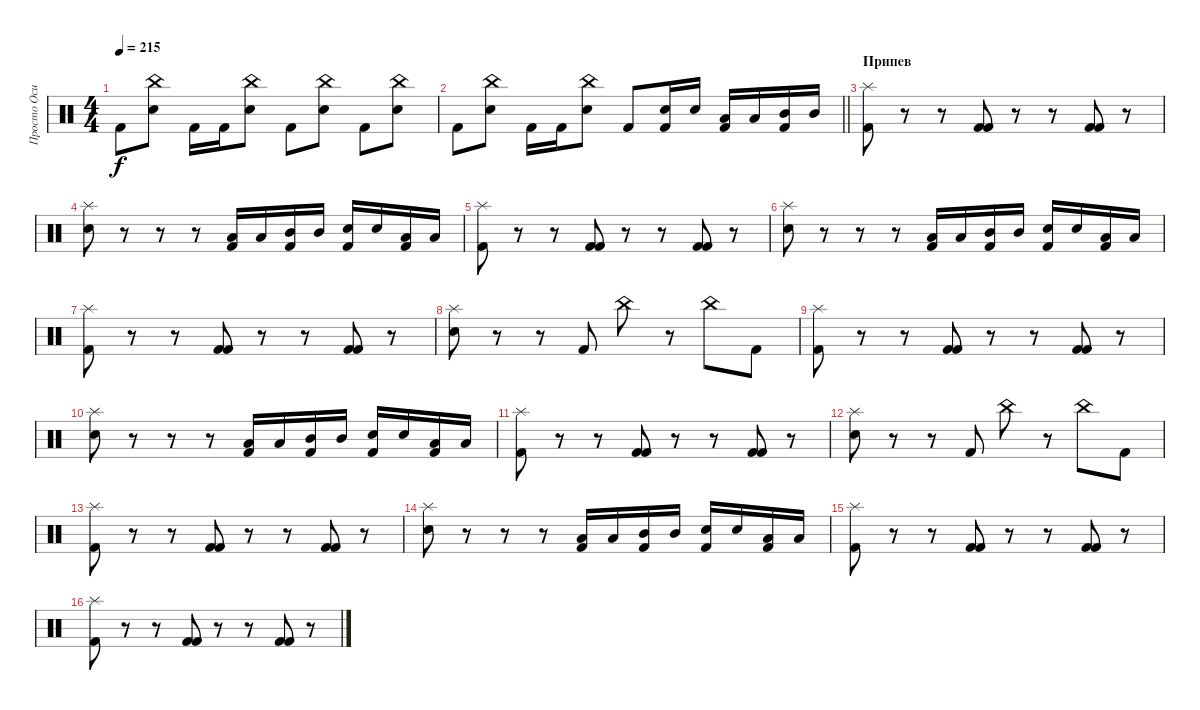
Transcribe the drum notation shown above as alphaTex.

\track ("Просто Осип" "Просто Оси") {instrument percussion}
\staff {score}
\articulation defaults
\ts (4 4)
\tempo 215
\clef neutral
\ks c "Kick (hit) 2".8{dy f}
("Electric Snare (hit)" "China (hit)").8 "Kick (hit) 2".16 "Kick (hit) 2".16 ("Electric Snare (hit)" "China (hit)").8 "Kick (hit) 2".8 ("Electric Snare (hit)" "China (hit)").8 "Kick (hit) 2".8 ("Electric Snare (hit)" "China (hit)").8 |
\barLineRight lightlight "Kick (hit) 2".8
("Electric Snare (hit)" "China (hit)").8 "Kick (hit) 2".16 "Kick (hit) 2".16 ("Electric Snare (hit)" "China (hit)").8 "Kick (hit) 2".8 ("Kick (hit) 2" "Electric Snare (hit)").16 "Electric Snare (hit)".16 ("Kick (hit) 2" "Low Tom (hit)").16 "Low Tom (hit)".16 ("Kick (hit) 2" "Mid Tom (hit)").16 "Mid Tom (hit)".16 |
\section ("" "Припев")
("Kick (hit) 2" "Splash (hit)").8 r.8 r.8 ("Kick (hit) 2" "Kick (hit) 2").8 r.8 r.8 ("Kick (hit) 2" "Kick (hit) 2").8 r.8 |
("Splash (hit)" "Electric Snare (hit)").8 r.8 r.8 r.8 ("Kick (hit) 2" "Low Tom (hit)").16 "Low Tom (hit)".16 ("Kick (hit) 2" "Mid Tom (hit)").16 "Mid Tom (hit)".16 ("Kick (hit) 2" "Electric Snare (hit)").16 "Electric Snare (hit)".16 ("Kick (hit) 2" "Low Tom (hit)").16 "Low Tom (hit)".16 |
("Kick (hit) 2" "Splash (hit)").8 r.8 r.8 ("Kick (hit) 2" "Kick (hit) 2").8 r.8 r.8 ("Kick (hit) 2" "Kick (hit) 2").8 r.8 |
("Splash (hit)" "Electric Snare (hit)").8 r.8 r.8 r.8 ("Kick (hit) 2" "Low Tom (hit)").16 "Low Tom (hit)".16 ("Kick (hit) 2" "Mid Tom (hit)").16 "Mid Tom (hit)".16 ("Kick (hit) 2" "Electric Snare (hit)").16 "Electric Snare (hit)".16 ("Kick (hit) 2" "Low Tom (hit)").16 "Low Tom (hit)".16 |
("Kick (hit) 2" "Splash (hit)").8 r.8 r.8 ("Kick (hit) 2" "Kick (hit) 2").8 r.8 r.8 ("Kick (hit) 2" "Kick (hit) 2").8 r.8 |
("Splash (hit)" "Electric Snare (hit)").8 r.8 r.8 "Kick (hit) 2".8 "China (hit)".8 r.8 "China (hit)".8 "Kick (hit) 2".8 |
("Kick (hit) 2" "Splash (hit)").8 r.8 r.8 ("Kick (hit) 2" "Kick (hit) 2").8 r.8 r.8 ("Kick (hit) 2" "Kick (hit) 2").8 r.8 |
("Splash (hit)" "Electric Snare (hit)").8 r.8 r.8 r.8 ("Kick (hit) 2" "Low Tom (hit)").16 "Low Tom (hit)".16 ("Kick (hit) 2" "Mid Tom (hit)").16 "Mid Tom (hit)".16 ("Kick (hit) 2" "Electric Snare (hit)").16 "Electric Snare (hit)".16 ("Kick (hit) 2" "Low Tom (hit)").16 "Low Tom (hit)".16 |
("Kick (hit) 2" "Splash (hit)").8 r.8 r.8 ("Kick (hit) 2" "Kick (hit) 2").8 r.8 r.8 ("Kick (hit) 2" "Kick (hit) 2").8 r.8 |
("Splash (hit)" "Electric Snare (hit)").8 r.8 r.8 "Kick (hit) 2".8 "China (hit)".8 r.8 "China (hit)".8 "Kick (hit) 2".8 |
("Kick (hit) 2" "Splash (hit)").8 r.8 r.8 ("Kick (hit) 2" "Kick (hit) 2").8 r.8 r.8 ("Kick (hit) 2" "Kick (hit) 2").8 r.8 |
("Splash (hit)" "Electric Snare (hit)").8 r.8 r.8 r.8 ("Kick (hit) 2" "Low Tom (hit)").16 "Low Tom (hit)".16 ("Kick (hit) 2" "Mid Tom (hit)").16 "Mid Tom (hit)".16 ("Kick (hit) 2" "Electric Snare (hit)").16 "Electric Snare (hit)".16 ("Kick (hit) 2" "Low Tom (hit)").16 "Low Tom (hit)".16 |
("Kick (hit) 2" "Splash (hit)").8 r.8 r.8 ("Kick (hit) 2" "Kick (hit) 2").8 r.8 r.8 ("Kick (hit) 2" "Kick (hit) 2").8 r.8 |
("Kick (hit) 2" "Splash (hit)").8 r.8 r.8 ("Kick (hit) 2" "Kick (hit) 2").8 r.8 r.8 ("Kick (hit) 2" "Kick (hit) 2").8 r.8
